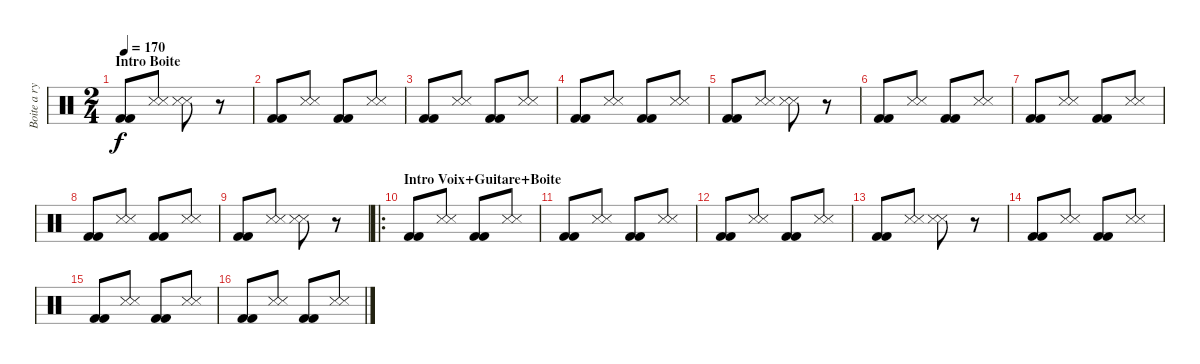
\track ("Boite a rythme" "Boite a ry") {instrument percussion}
\staff {score}
\articulation defaults
\ts (2 4)
\section ("" "Intro Boite")
\tempo 170
\clef neutral
\ks c
("Kick (hit) 2" "Kick (hit) 2").8{dy f} ("Metronome (hit)" "Metronome (hit)").8 ("Metronome (hit)" "Metronome (hit)").8 r.8 |
("Kick (hit) 2" "Kick (hit) 2").8 ("Metronome (hit)" "Metronome (hit)").8 ("Kick (hit) 2" "Kick (hit) 2").8 ("Metronome (hit)" "Metronome (hit)").8 |
("Kick (hit) 2" "Kick (hit) 2").8 ("Metronome (hit)" "Metronome (hit)").8 ("Kick (hit) 2" "Kick (hit) 2").8 ("Metronome (hit)" "Metronome (hit)").8 |
("Kick (hit) 2" "Kick (hit) 2").8 ("Metronome (hit)" "Metronome (hit)").8 ("Kick (hit) 2" "Kick (hit) 2").8 ("Metronome (hit)" "Metronome (hit)").8 |
("Kick (hit) 2" "Kick (hit) 2").8 ("Metronome (hit)" "Metronome (hit)").8 ("Metronome (hit)" "Metronome (hit)").8 r.8 |
("Kick (hit) 2" "Kick (hit) 2").8 ("Metronome (hit)" "Metronome (hit)").8 ("Kick (hit) 2" "Kick (hit) 2").8 ("Metronome (hit)" "Metronome (hit)").8 |
("Kick (hit) 2" "Kick (hit) 2").8 ("Metronome (hit)" "Metronome (hit)").8 ("Kick (hit) 2" "Kick (hit) 2").8 ("Metronome (hit)" "Metronome (hit)").8 |
("Kick (hit) 2" "Kick (hit) 2").8 ("Metronome (hit)" "Metronome (hit)").8 ("Kick (hit) 2" "Kick (hit) 2").8 ("Metronome (hit)" "Metronome (hit)").8 |
("Kick (hit) 2" "Kick (hit) 2").8 ("Metronome (hit)" "Metronome (hit)").8 ("Metronome (hit)" "Metronome (hit)").8 r.8 |
\ro
\section ("" "Intro Voix+Guitare+Boite")
("Kick (hit) 2" "Kick (hit) 2").8 ("Metronome (hit)" "Metronome (hit)").8 ("Kick (hit) 2" "Kick (hit) 2").8 ("Metronome (hit)" "Metronome (hit)").8 |
("Kick (hit) 2" "Kick (hit) 2").8 ("Metronome (hit)" "Metronome (hit)").8 ("Kick (hit) 2" "Kick (hit) 2").8 ("Metronome (hit)" "Metronome (hit)").8 |
("Kick (hit) 2" "Kick (hit) 2").8 ("Metronome (hit)" "Metronome (hit)").8 ("Kick (hit) 2" "Kick (hit) 2").8 ("Metronome (hit)" "Metronome (hit)").8 |
("Kick (hit) 2" "Kick (hit) 2").8 ("Metronome (hit)" "Metronome (hit)").8 ("Metronome (hit)" "Metronome (hit)").8 r.8 |
("Kick (hit) 2" "Kick (hit) 2").8 ("Metronome (hit)" "Metronome (hit)").8 ("Kick (hit) 2" "Kick (hit) 2").8 ("Metronome (hit)" "Metronome (hit)").8 |
("Kick (hit) 2" "Kick (hit) 2").8 ("Metronome (hit)" "Metronome (hit)").8 ("Kick (hit) 2" "Kick (hit) 2").8 ("Metronome (hit)" "Metronome (hit)").8 |
("Kick (hit) 2" "Kick (hit) 2").8 ("Metronome (hit)" "Metronome (hit)").8 ("Kick (hit) 2" "Kick (hit) 2").8 ("Metronome (hit)" "Metronome (hit)").8
